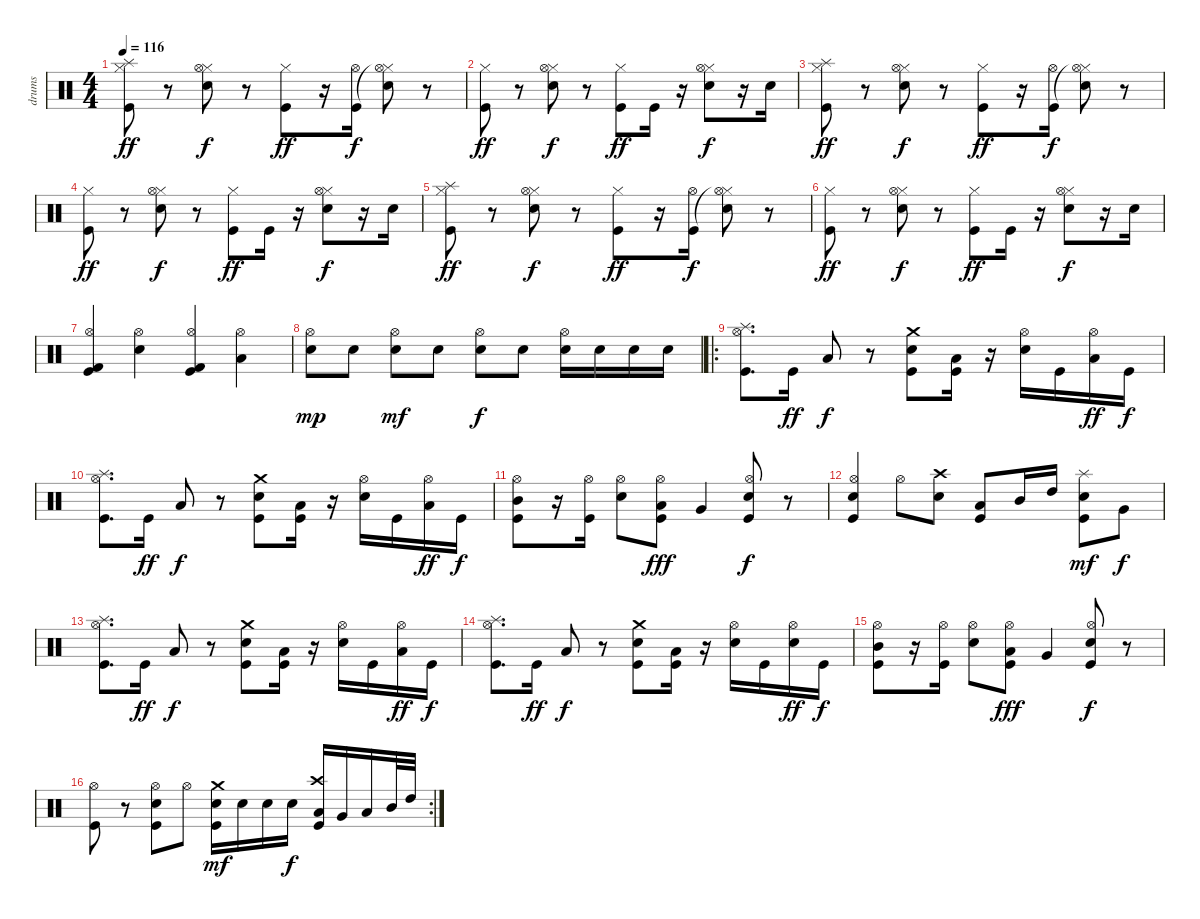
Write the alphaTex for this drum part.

\track ("drums" "drums") {instrument percussion}
\staff {score}
\articulation defaults
\ts (4 4)
\tempo 116
\clef neutral
\ks c
("Hi-Hat (closed)" "Splash (hit)" "Kick (hit)").8{dy ff} r.8 ("Hi-Hat (closed)" "Hi-Hat (open)" "Electric Snare (hit)").8{dy f} r.8 ("Hi-Hat (closed)" "Kick (hit)").8{dy ff} r.16 ("Hi-Hat (open)" "Kick (hit)").16{dy f} ("Hi-Hat (closed)" "Hi-Hat (open)"{t} "Electric Snare (hit)").8 r.8 |
("Hi-Hat (closed)" "Kick (hit)").8{dy ff} r.8 ("Hi-Hat (closed)" "Hi-Hat (open)" "Electric Snare (hit)").8{dy f} r.8 ("Hi-Hat (closed)" "Kick (hit)").8{dy ff} "Kick (hit)".16 r.16 ("Hi-Hat (closed)" "Hi-Hat (open)" "Electric Snare (hit)").8{dy f} r.16 "Electric Snare (hit)".16 |
("Hi-Hat (closed)" "Splash (hit)" "Kick (hit)").8{dy ff} r.8 ("Hi-Hat (closed)" "Hi-Hat (open)" "Electric Snare (hit)").8{dy f} r.8 ("Hi-Hat (closed)" "Kick (hit)").8{dy ff} r.16 ("Hi-Hat (open)" "Kick (hit)").16{dy f} ("Hi-Hat (closed)" "Hi-Hat (open)"{t} "Electric Snare (hit)").8 r.8 |
("Hi-Hat (closed)" "Kick (hit)").8{dy ff} r.8 ("Hi-Hat (closed)" "Hi-Hat (open)" "Electric Snare (hit)").8{dy f} r.8 ("Hi-Hat (closed)" "Kick (hit)").8{dy ff} "Kick (hit)".16 r.16 ("Hi-Hat (closed)" "Hi-Hat (open)" "Electric Snare (hit)").8{dy f} r.16 "Electric Snare (hit)".16 |
("Hi-Hat (closed)" "Splash (hit)" "Kick (hit)").8{dy ff} r.8 ("Hi-Hat (closed)" "Hi-Hat (open)" "Electric Snare (hit)").8{dy f} r.8 ("Hi-Hat (closed)" "Kick (hit)").8{dy ff} r.16 ("Hi-Hat (open)" "Kick (hit)").16{dy f} ("Hi-Hat (closed)" "Hi-Hat (open)"{t} "Electric Snare (hit)").8 r.8 |
("Hi-Hat (closed)" "Kick (hit)").8{dy ff} r.8 ("Hi-Hat (closed)" "Hi-Hat (open)" "Electric Snare (hit)").8{dy f} r.8 ("Hi-Hat (closed)" "Kick (hit)").8{dy ff} "Kick (hit)".16 r.16 ("Hi-Hat (closed)" "Hi-Hat (open)" "Electric Snare (hit)").8{dy f} r.16 "Electric Snare (hit)".16 |
("Hi-Hat (open)" "Kick (hit) 2" "Kick (hit)").4 ("Hi-Hat (open)" "Electric Snare (hit)").4 ("Hi-Hat (open)" "Kick (hit) 2" "Kick (hit)").4 ("Hi-Hat (open)" "Low Tom (hit)").4 |
("Hi-Hat (open)" "Electric Snare (hit)").8{dy mp} "Electric Snare (hit)".8 ("Hi-Hat (open)" "Electric Snare (hit)").8{dy mf} "Electric Snare (hit)".8 ("Hi-Hat (open)" "Electric Snare (hit)").8{dy f} "Electric Snare (hit)".8 ("Hi-Hat (open)" "Electric Snare (hit)").16 "Electric Snare (hit)".16 "Electric Snare (hit)".16 "Electric Snare (hit)".16 |
\ro
("Hi-Hat (open)" "Splash (hit)" "Kick (hit)").8{d} "Kick (hit)".16{dy ff} "Low Tom (hit)".8{dy f} r.8 ("Crash medium (hit)" "Electric Snare (hit)" "Kick (hit)").8 ("Low Tom (hit)" "Kick (hit)").16 r.16 ("Hi-Hat (open)" "Electric Snare (hit)").16 "Kick (hit)".16 ("Hi-Hat (open)" "Low Tom (hit)").16{dy ff} "Kick (hit)".16{dy f} |
("Hi-Hat (open)" "Splash (hit)" "Kick (hit)").8{d} "Kick (hit)".16{dy ff} "Low Tom (hit)".8{dy f} r.8 ("Crash medium (hit)" "Electric Snare (hit)" "Kick (hit)").8 ("Low Tom (hit)" "Kick (hit)").16 r.16 ("Hi-Hat (open)" "Electric Snare (hit)").16 "Kick (hit)".16 ("Hi-Hat (open)" "Low Tom (hit)").16{dy ff} "Kick (hit)".16{dy f} |
("Hi-Hat (open)" "Mid Tom (hit)" "Kick (hit)").8 r.16 ("Hi-Hat (open)" "Kick (hit)").16 ("Hi-Hat (open)" "Electric Snare (hit)").8 ("Hi-Hat (open)" "Low Tom (hit)" "Kick (hit)").8{dy fff} "Very Low Tom (hit)".4 ("Hi-Hat (open)" "Electric Snare (hit)" "Kick (hit)").8{dy f} r.8 |
("Electric Snare (hit)" "Hi-Hat (open)" "Kick (hit)").4 "Hi-Hat (open)".8 ("Crash high (hit)" "Electric Snare (hit)").8 ("Low Tom (hit)" "Kick (hit)").8 "Mid Tom (hit)".16 "High Tom (hit)".16 ("Splash (hit)" "Electric Snare (hit)" "Kick (hit)").8{dy mf} "Very Low Tom (hit)".8{dy f} |
("Hi-Hat (open)" "Splash (hit)" "Kick (hit)").8{d} "Kick (hit)".16{dy ff} "Low Tom (hit)".8{dy f} r.8 ("Crash medium (hit)" "Electric Snare (hit)" "Kick (hit)").8 ("Low Tom (hit)" "Kick (hit)").16 r.16 ("Hi-Hat (open)" "Electric Snare (hit)").16 "Kick (hit)".16 ("Hi-Hat (open)" "Low Tom (hit)").16{dy ff} "Kick (hit)".16{dy f} |
("Hi-Hat (open)" "Splash (hit)" "Kick (hit)").8{d} "Kick (hit)".16{dy ff} "Low Tom (hit)".8{dy f} r.8 ("Crash medium (hit)" "Electric Snare (hit)" "Kick (hit)").8 ("Low Tom (hit)" "Kick (hit)").16 r.16 ("Hi-Hat (open)" "Electric Snare (hit)").16 "Kick (hit)".16 ("Hi-Hat (open)" "Electric Snare (hit)").16{dy ff} "Kick (hit)".16{dy f} |
("Hi-Hat (open)" "Mid Tom (hit)" "Kick (hit)").8 r.16 ("Hi-Hat (open)" "Kick (hit)").16 ("Hi-Hat (open)" "Electric Snare (hit)").8 ("Hi-Hat (open)" "Low Tom (hit)" "Kick (hit)").8{dy fff} "Very Low Tom (hit)".4 ("Hi-Hat (open)" "Electric Snare (hit)" "Kick (hit)").8{dy f} r.8 |
\rc 2
("Hi-Hat (open)" "Kick (hit)").8 r.8 ("Hi-Hat (open)" "Electric Snare (hit)" "Kick (hit)").8 "Hi-Hat (open)".8 ("Crash medium (hit)" "Electric Snare (hit)" "Kick (hit)").16{dy mf} "Electric Snare (hit)".16 "Electric Snare (hit)".16 "Electric Snare (hit)".16{dy f} ("Crash high (hit)" "Low Floor Tom (hit)" "Kick (hit)").16 "Very Low Tom (hit)".16 "Low Tom (hit)".16 "Mid Tom (hit)".32 "High Tom (hit)".32
